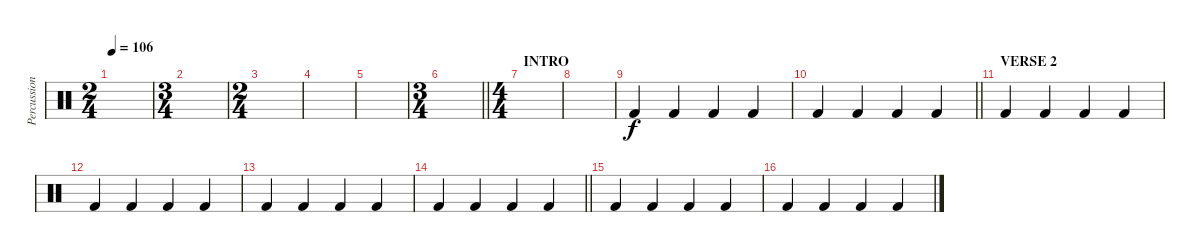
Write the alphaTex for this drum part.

\track ("Percussion" "Percussion") {instrument percussion}
\staff {score}
\articulation defaults
\ts (2 4)
\tempo 106
\clef neutral
\ks c
|
\ts (3 4)
|
\ts (2 4)
|
|
|
\ts (3 4)
\barLineRight lightlight
|
\ts (4 4)
\section ("" "INTRO")
|
|
"Kick (hit) 2".4{dy f} "Kick (hit) 2".4 "Kick (hit) 2".4 "Kick (hit) 2".4 |
\barLineRight lightlight "Kick (hit) 2".4 "Kick (hit) 2".4 "Kick (hit) 2".4 "Kick (hit) 2".4
|
\section ("" "VERSE 2")
"Kick (hit) 2".4 "Kick (hit) 2".4 "Kick (hit) 2".4 "Kick (hit) 2".4 |
"Kick (hit) 2".4 "Kick (hit) 2".4 "Kick (hit) 2".4 "Kick (hit) 2".4 |
"Kick (hit) 2".4 "Kick (hit) 2".4 "Kick (hit) 2".4 "Kick (hit) 2".4 |
\barLineRight lightlight "Kick (hit) 2".4 "Kick (hit) 2".4 "Kick (hit) 2".4 "Kick (hit) 2".4
|
"Kick (hit) 2".4 "Kick (hit) 2".4 "Kick (hit) 2".4 "Kick (hit) 2".4 |
"Kick (hit) 2".4 "Kick (hit) 2".4 "Kick (hit) 2".4 "Kick (hit) 2".4
